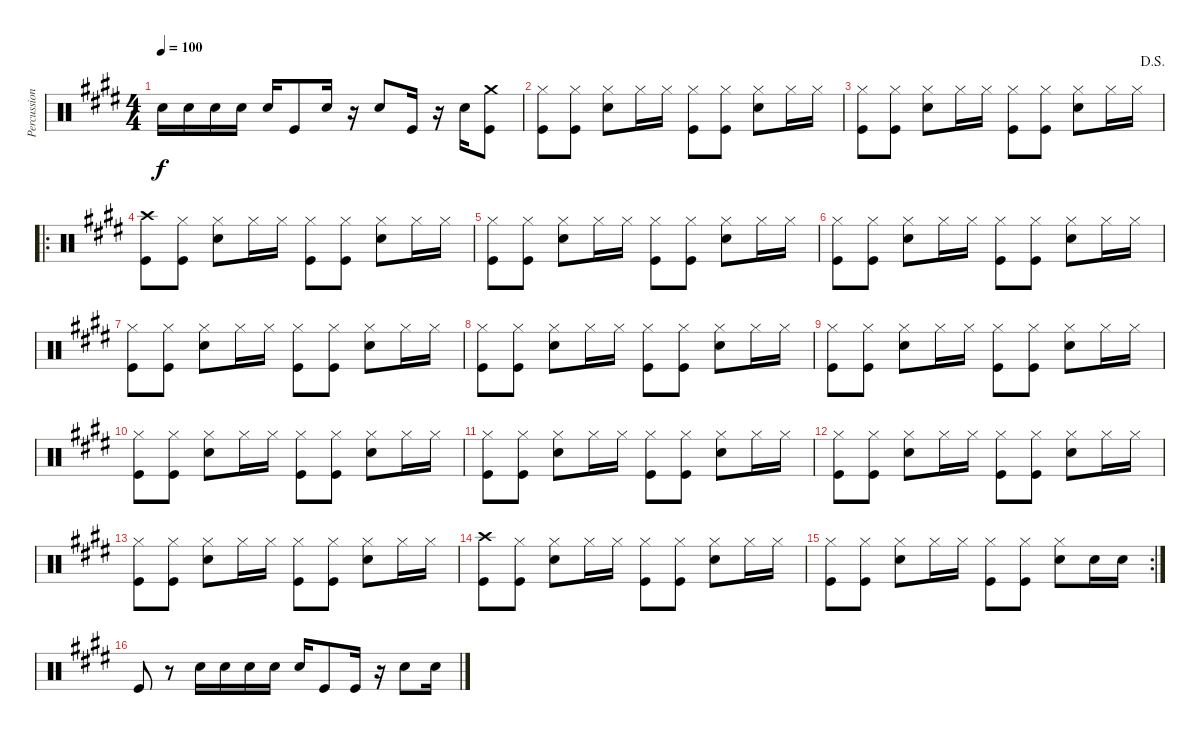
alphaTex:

\track ("Percussions" "Percussion") {instrument percussion}
\staff {score}
\articulation defaults
\ts (4 4)
\tempo 100
\clef neutral
\ks e "Snare (hit) 2".16{dy f} "Snare (hit) 2".16 "Snare (hit) 2".16 "Snare (hit) 2".16 "Snare (hit) 2".16 "Kick (hit)".8 "Snare (hit) 2".16
r.16 "Snare (hit) 2".8 "Kick (hit)".16 r.16 "Snare (hit) 2".16 ("Crash medium (hit)" "Kick (hit)").8 |
("Hi-Hat (closed)" "Kick (hit)").8 ("Hi-Hat (closed)" "Kick (hit)").8 ("Hi-Hat (closed)" "Snare (hit) 2").8 "Hi-Hat (closed)".16 "Hi-Hat (closed)".16 ("Hi-Hat (closed)" "Kick (hit)").8 ("Hi-Hat (closed)" "Kick (hit)").8 ("Hi-Hat (closed)" "Snare (hit) 2").8 "Hi-Hat (closed)".16 "Hi-Hat (closed)".16 |
\jump dalsegno
("Hi-Hat (closed)" "Kick (hit)").8 ("Hi-Hat (closed)" "Kick (hit)").8 ("Hi-Hat (closed)" "Snare (hit) 2").8 "Hi-Hat (closed)".16 "Hi-Hat (closed)".16 ("Hi-Hat (closed)" "Kick (hit)").8 ("Hi-Hat (closed)" "Kick (hit)").8 ("Hi-Hat (closed)" "Snare (hit) 2").8 "Hi-Hat (closed)".16 "Hi-Hat (closed)".16 |
\ro
("Crash high (hit)" "Kick (hit)").8 ("Hi-Hat (closed)" "Kick (hit)").8 ("Hi-Hat (closed)" "Snare (hit) 2").8 "Hi-Hat (closed)".16 "Hi-Hat (closed)".16 ("Hi-Hat (closed)" "Kick (hit)").8 ("Hi-Hat (closed)" "Kick (hit)").8 ("Hi-Hat (closed)" "Snare (hit) 2").8 "Hi-Hat (closed)".16 "Hi-Hat (closed)".16 |
("Hi-Hat (closed)" "Kick (hit)").8 ("Hi-Hat (closed)" "Kick (hit)").8 ("Hi-Hat (closed)" "Snare (hit) 2").8 "Hi-Hat (closed)".16 "Hi-Hat (closed)".16 ("Hi-Hat (closed)" "Kick (hit)").8 ("Hi-Hat (closed)" "Kick (hit)").8 ("Hi-Hat (closed)" "Snare (hit) 2").8 "Hi-Hat (closed)".16 "Hi-Hat (closed)".16 |
("Hi-Hat (closed)" "Kick (hit)").8 ("Hi-Hat (closed)" "Kick (hit)").8 ("Hi-Hat (closed)" "Snare (hit) 2").8 "Hi-Hat (closed)".16 "Hi-Hat (closed)".16 ("Hi-Hat (closed)" "Kick (hit)").8 ("Hi-Hat (closed)" "Kick (hit)").8 ("Hi-Hat (closed)" "Snare (hit) 2").8 "Hi-Hat (closed)".16 "Hi-Hat (closed)".16 |
("Hi-Hat (closed)" "Kick (hit)").8 ("Hi-Hat (closed)" "Kick (hit)").8 ("Hi-Hat (closed)" "Snare (hit) 2").8 "Hi-Hat (closed)".16 "Hi-Hat (closed)".16 ("Hi-Hat (closed)" "Kick (hit)").8 ("Hi-Hat (closed)" "Kick (hit)").8 ("Hi-Hat (closed)" "Snare (hit) 2").8 "Hi-Hat (closed)".16 "Hi-Hat (closed)".16 |
("Hi-Hat (closed)" "Kick (hit)").8 ("Hi-Hat (closed)" "Kick (hit)").8 ("Hi-Hat (closed)" "Snare (hit) 2").8 "Hi-Hat (closed)".16 "Hi-Hat (closed)".16 ("Hi-Hat (closed)" "Kick (hit)").8 ("Hi-Hat (closed)" "Kick (hit)").8 ("Hi-Hat (closed)" "Snare (hit) 2").8 "Hi-Hat (closed)".16 "Hi-Hat (closed)".16 |
("Hi-Hat (closed)" "Kick (hit)").8 ("Hi-Hat (closed)" "Kick (hit)").8 ("Hi-Hat (closed)" "Snare (hit) 2").8 "Hi-Hat (closed)".16 "Hi-Hat (closed)".16 ("Hi-Hat (closed)" "Kick (hit)").8 ("Hi-Hat (closed)" "Kick (hit)").8 ("Hi-Hat (closed)" "Snare (hit) 2").8 "Hi-Hat (closed)".16 "Hi-Hat (closed)".16 |
("Hi-Hat (closed)" "Kick (hit)").8 ("Hi-Hat (closed)" "Kick (hit)").8 ("Hi-Hat (closed)" "Snare (hit) 2").8 "Hi-Hat (closed)".16 "Hi-Hat (closed)".16 ("Hi-Hat (closed)" "Kick (hit)").8 ("Hi-Hat (closed)" "Kick (hit)").8 ("Hi-Hat (closed)" "Snare (hit) 2").8 "Hi-Hat (closed)".16 "Hi-Hat (closed)".16 |
("Hi-Hat (closed)" "Kick (hit)").8 ("Hi-Hat (closed)" "Kick (hit)").8 ("Hi-Hat (closed)" "Snare (hit) 2").8 "Hi-Hat (closed)".16 "Hi-Hat (closed)".16 ("Hi-Hat (closed)" "Kick (hit)").8 ("Hi-Hat (closed)" "Kick (hit)").8 ("Hi-Hat (closed)" "Snare (hit) 2").8 "Hi-Hat (closed)".16 "Hi-Hat (closed)".16 |
("Hi-Hat (closed)" "Kick (hit)").8 ("Hi-Hat (closed)" "Kick (hit)").8 ("Hi-Hat (closed)" "Snare (hit) 2").8 "Hi-Hat (closed)".16 "Hi-Hat (closed)".16 ("Hi-Hat (closed)" "Kick (hit)").8 ("Hi-Hat (closed)" "Kick (hit)").8 ("Hi-Hat (closed)" "Snare (hit) 2").8 "Hi-Hat (closed)".16 "Hi-Hat (closed)".16 |
("Hi-Hat (closed)" "Kick (hit)").8 ("Hi-Hat (closed)" "Kick (hit)").8 ("Hi-Hat (closed)" "Snare (hit) 2").8 "Hi-Hat (closed)".16 "Hi-Hat (closed)".16 ("Hi-Hat (closed)" "Kick (hit)").8 ("Hi-Hat (closed)" "Kick (hit)").8 ("Hi-Hat (closed)" "Snare (hit) 2").8 "Hi-Hat (closed)".16 "Hi-Hat (closed)".16 |
("Crash high (hit)" "Kick (hit)").8 ("Hi-Hat (closed)" "Kick (hit)").8 ("Hi-Hat (closed)" "Snare (hit) 2").8 "Hi-Hat (closed)".16 "Hi-Hat (closed)".16 ("Hi-Hat (closed)" "Kick (hit)").8 ("Hi-Hat (closed)" "Kick (hit)").8 ("Hi-Hat (closed)" "Snare (hit) 2").8 "Hi-Hat (closed)".16 "Hi-Hat (closed)".16 |
\rc 2
("Hi-Hat (closed)" "Kick (hit)").8 ("Hi-Hat (closed)" "Kick (hit)").8 ("Hi-Hat (closed)" "Snare (hit) 2").8 "Hi-Hat (closed)".16 "Hi-Hat (closed)".16 ("Hi-Hat (closed)" "Kick (hit)").8 ("Hi-Hat (closed)" "Kick (hit)").8 ("Hi-Hat (closed)" "Snare (hit) 2").8 "Snare (hit) 2".16 "Snare (hit) 2".16 |
"Kick (hit)".8 r.8 "Snare (hit) 2".16 "Snare (hit) 2".16 "Snare (hit) 2".16 "Snare (hit) 2".16 "Snare (hit) 2".16 "Kick (hit)".8 "Kick (hit)".16 r.16 "Snare (hit) 2".8 "Snare (hit) 2".16
